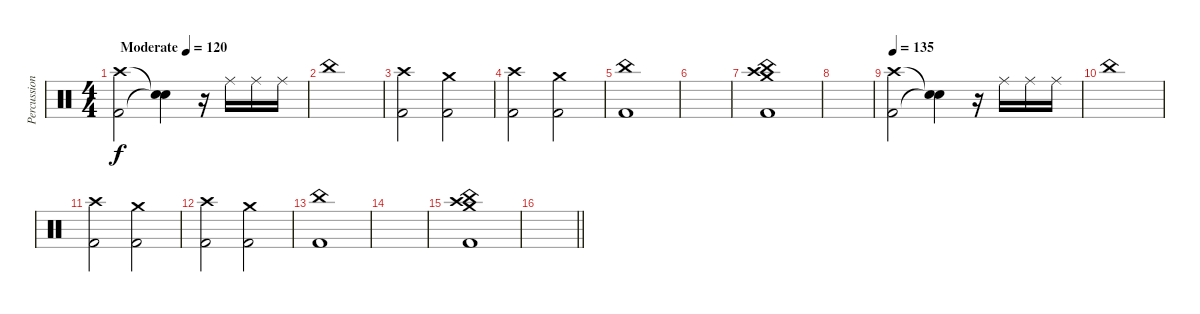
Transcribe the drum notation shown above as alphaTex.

\track ("Percussion" "Percussion") {instrument percussion}
\staff {score}
\articulation defaults
\ts (4 4)
\tempo (120 "Moderate")
\tempo 135
\tempo (120 "Moderate")
\clef neutral
\ks c
("Crash high (hit)" "Kick (hit) 2").2{dy f} ("Snare (hit)"{t} "Snare (hit)"{t}).4 r.16 "Ride (middle)".16 "Ride (middle)".16 "Ride (middle)".16 |
"China (hit)".1 |
("Crash high (hit)" "Kick (hit) 2").2 ("Crash medium (hit)" "Kick (hit) 2").2 |
("Crash high (hit)" "Kick (hit) 2").2 ("Crash medium (hit)" "Kick (hit) 2").2 |
("Kick (hit) 2" "China (hit)").1 |
|
("Crash medium (hit)" "Crash high (hit)" "China (hit)" "Kick (hit) 2").1 |
|
\tempo 135
("Crash high (hit)" "Kick (hit) 2").2 ("Snare (hit)"{t} "Snare (hit)"{t}).4 r.16 "Ride (middle)".16 "Ride (middle)".16 "Ride (middle)".16 |
"China (hit)".1 |
("Crash high (hit)" "Kick (hit) 2").2 ("Crash medium (hit)" "Kick (hit) 2").2 |
("Crash high (hit)" "Kick (hit) 2").2 ("Crash medium (hit)" "Kick (hit) 2").2 |
("Kick (hit) 2" "China (hit)").1 |
|
("Crash medium (hit)" "Crash high (hit)" "China (hit)" "Kick (hit) 2").1 |
\barLineRight lightlight
